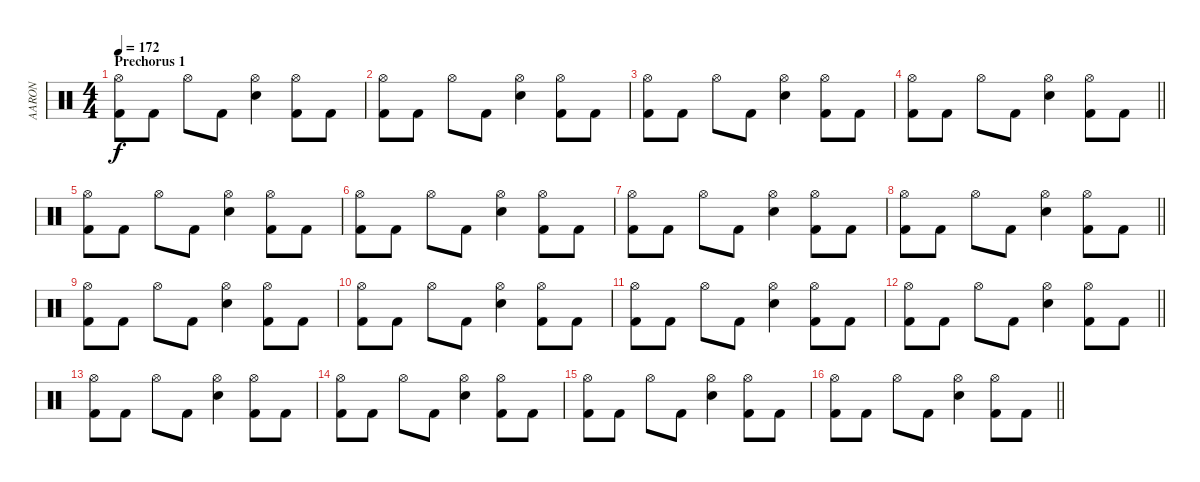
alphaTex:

\track ("AARON" "AARON") {instrument percussion}
\staff {score}
\articulation defaults
\ts (4 4)
\section ("" "Prechorus 1")
\tempo 172
\clef neutral
\ks c
("Hi-Hat (open)" "Kick (hit) 2").8{dy f} "Kick (hit) 2".8 "Hi-Hat (open)".8 "Kick (hit) 2".8 ("Hi-Hat (open)" "Electric Snare (hit)").4 ("Hi-Hat (open)" "Kick (hit) 2").8 "Kick (hit) 2".8 |
("Hi-Hat (open)" "Kick (hit) 2").8 "Kick (hit) 2".8 "Hi-Hat (open)".8 "Kick (hit) 2".8 ("Hi-Hat (open)" "Electric Snare (hit)").4 ("Hi-Hat (open)" "Kick (hit) 2").8 "Kick (hit) 2".8 |
("Hi-Hat (open)" "Kick (hit) 2").8 "Kick (hit) 2".8 "Hi-Hat (open)".8 "Kick (hit) 2".8 ("Hi-Hat (open)" "Electric Snare (hit)").4 ("Hi-Hat (open)" "Kick (hit) 2").8 "Kick (hit) 2".8 |
\barLineRight lightlight
("Hi-Hat (open)" "Kick (hit) 2").8 "Kick (hit) 2".8 "Hi-Hat (open)".8 "Kick (hit) 2".8 ("Hi-Hat (open)" "Electric Snare (hit)").4 ("Hi-Hat (open)" "Kick (hit) 2").8 "Kick (hit) 2".8 |
("Hi-Hat (open)" "Kick (hit) 2").8 "Kick (hit) 2".8 "Hi-Hat (open)".8 "Kick (hit) 2".8 ("Hi-Hat (open)" "Electric Snare (hit)").4 ("Hi-Hat (open)" "Kick (hit) 2").8 "Kick (hit) 2".8 |
("Hi-Hat (open)" "Kick (hit) 2").8 "Kick (hit) 2".8 "Hi-Hat (open)".8 "Kick (hit) 2".8 ("Hi-Hat (open)" "Electric Snare (hit)").4 ("Hi-Hat (open)" "Kick (hit) 2").8 "Kick (hit) 2".8 |
("Hi-Hat (open)" "Kick (hit) 2").8 "Kick (hit) 2".8 "Hi-Hat (open)".8 "Kick (hit) 2".8 ("Hi-Hat (open)" "Electric Snare (hit)").4 ("Hi-Hat (open)" "Kick (hit) 2").8 "Kick (hit) 2".8 |
\barLineRight lightlight
("Hi-Hat (open)" "Kick (hit) 2").8 "Kick (hit) 2".8 "Hi-Hat (open)".8 "Kick (hit) 2".8 ("Hi-Hat (open)" "Electric Snare (hit)").4 ("Hi-Hat (open)" "Kick (hit) 2").8 "Kick (hit) 2".8 |
("Hi-Hat (open)" "Kick (hit) 2").8 "Kick (hit) 2".8 "Hi-Hat (open)".8 "Kick (hit) 2".8 ("Hi-Hat (open)" "Electric Snare (hit)").4 ("Hi-Hat (open)" "Kick (hit) 2").8 "Kick (hit) 2".8 |
("Hi-Hat (open)" "Kick (hit) 2").8 "Kick (hit) 2".8 "Hi-Hat (open)".8 "Kick (hit) 2".8 ("Hi-Hat (open)" "Electric Snare (hit)").4 ("Hi-Hat (open)" "Kick (hit) 2").8 "Kick (hit) 2".8 |
("Hi-Hat (open)" "Kick (hit) 2").8 "Kick (hit) 2".8 "Hi-Hat (open)".8 "Kick (hit) 2".8 ("Hi-Hat (open)" "Electric Snare (hit)").4 ("Hi-Hat (open)" "Kick (hit) 2").8 "Kick (hit) 2".8 |
\barLineRight lightlight
("Hi-Hat (open)" "Kick (hit) 2").8 "Kick (hit) 2".8 "Hi-Hat (open)".8 "Kick (hit) 2".8 ("Hi-Hat (open)" "Electric Snare (hit)").4 ("Hi-Hat (open)" "Kick (hit) 2").8 "Kick (hit) 2".8 |
("Hi-Hat (open)" "Kick (hit) 2").8 "Kick (hit) 2".8 "Hi-Hat (open)".8 "Kick (hit) 2".8 ("Hi-Hat (open)" "Electric Snare (hit)").4 ("Hi-Hat (open)" "Kick (hit) 2").8 "Kick (hit) 2".8 |
("Hi-Hat (open)" "Kick (hit) 2").8 "Kick (hit) 2".8 "Hi-Hat (open)".8 "Kick (hit) 2".8 ("Hi-Hat (open)" "Electric Snare (hit)").4 ("Hi-Hat (open)" "Kick (hit) 2").8 "Kick (hit) 2".8 |
("Hi-Hat (open)" "Kick (hit) 2").8 "Kick (hit) 2".8 "Hi-Hat (open)".8 "Kick (hit) 2".8 ("Hi-Hat (open)" "Electric Snare (hit)").4 ("Hi-Hat (open)" "Kick (hit) 2").8 "Kick (hit) 2".8 |
\barLineRight lightlight
("Hi-Hat (open)" "Kick (hit) 2").8 "Kick (hit) 2".8 "Hi-Hat (open)".8 "Kick (hit) 2".8 ("Hi-Hat (open)" "Electric Snare (hit)").4 ("Hi-Hat (open)" "Kick (hit) 2").8 "Kick (hit) 2".8
